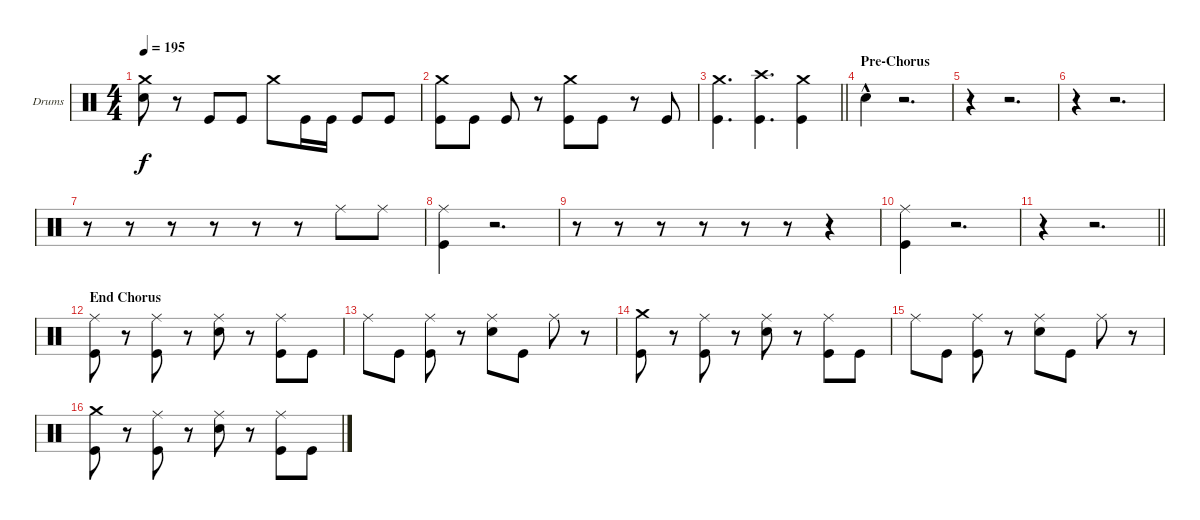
\bracketExtendMode groupsimilarinstruments
\firstSystemTrackNameOrientation horizontal
\otherSystemsTrackNameOrientation horizontal
\track ("Drumkit" "Drums") {instrument percussion}
\staff {score}
\articulation defaults
\ts (4 4)
\tempo 195
\clef neutral
\ks c
("Crash medium (hit)" "Snare (hit) 2").8{dy f} r.8 "Kick (hit)".8 "Kick (hit)".8 "Crash medium (hit)".8 "Kick (hit)".16 "Kick (hit)".16 "Kick (hit)".8 "Kick (hit)".8 |
("Crash medium (hit)" "Kick (hit)").8 "Kick (hit)".8 "Kick (hit)".8 r.8 ("Crash medium (hit)" "Kick (hit)").8 "Kick (hit)".8 r.8 "Kick (hit)".8 |
\barLineRight lightlight
("Crash medium (hit)" "Kick (hit)").4{d} ("Crash high (hit)" "Kick (hit)").4{d} ("Crash medium (hit)" "Kick (hit)").4 |
\section ("" "Pre-Chorus")
"Snare (hit) 2"{hac}.4 r.2{d} |
r.4 r.2{d} |
r.4 r.2{d} |
r.8 r.8 r.8 r.8 r.8 r.8 "Ride (middle)".8 "Ride (middle)".8 |
("Ride (middle)" "Kick (hit)").4 r.2{d} |
r.8 r.8 r.8 r.8 r.8 r.8 r.4 |
("Ride (middle)" "Kick (hit)").4 r.2{d} |
\barLineRight lightlight
r.4 r.2{d} |
\section ("" "End Chorus")
("Ride (middle)" "Kick (hit)").8 r.8 ("Ride (middle)" "Kick (hit)").8 r.8 ("Ride (middle)" "Snare (hit) 2").8 r.8 ("Ride (middle)" "Kick (hit)").8 "Kick (hit)".8 |
"Ride (middle)".8 "Kick (hit)".8 ("Ride (middle)" "Kick (hit)").8 r.8 ("Ride (middle)" "Snare (hit) 2").8 "Kick (hit)".8 "Ride (middle)".8 r.8 |
("Crash medium (hit)" "Kick (hit)").8 r.8 ("Ride (middle)" "Kick (hit)").8 r.8 ("Ride (middle)" "Snare (hit) 2").8 r.8 ("Ride (middle)" "Kick (hit)").8 "Kick (hit)".8 |
"Ride (middle)".8 "Kick (hit)".8 ("Ride (middle)" "Kick (hit)").8 r.8 ("Ride (middle)" "Snare (hit) 2").8 "Kick (hit)".8 "Ride (middle)".8 r.8 |
("Crash medium (hit)" "Kick (hit)").8 r.8 ("Ride (middle)" "Kick (hit)").8 r.8 ("Ride (middle)" "Snare (hit) 2").8 r.8 ("Ride (middle)" "Kick (hit)").8 "Kick (hit)".8
